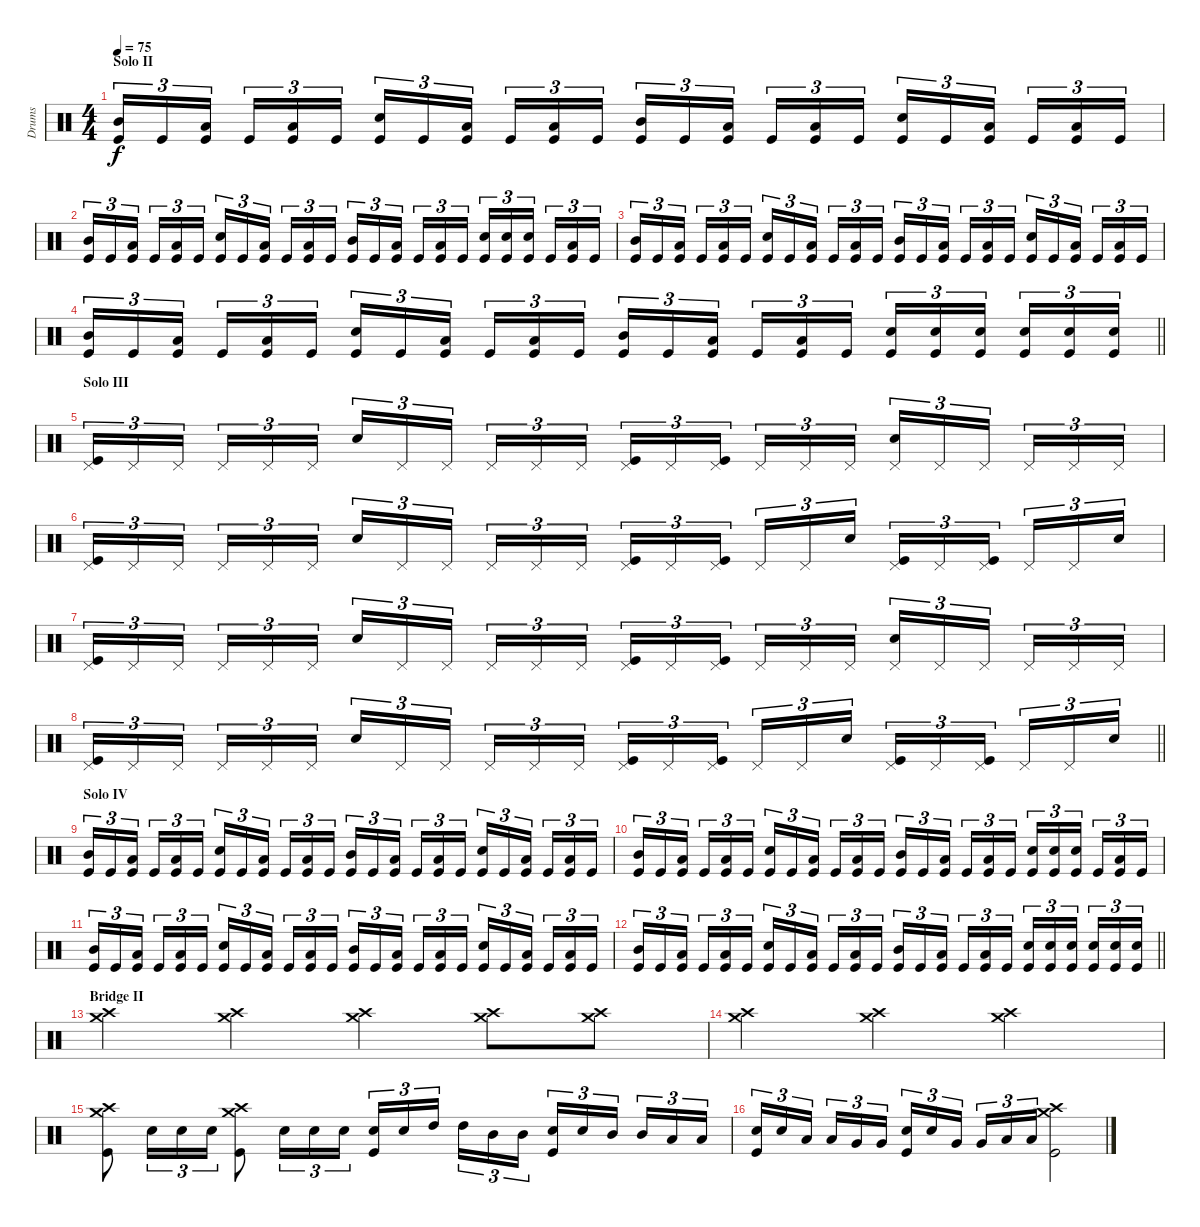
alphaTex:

\track ("Drums" "Drums") {instrument percussion}
\staff {score}
\articulation defaults
\ts (4 4)
\section ("" "Solo II")
\tempo 75
\clef neutral
\ks c
("Mid Tom (hit)" "Kick (hit)").16{tu (3 2) dy f} "Kick (hit)".16{tu (3 2)} ("Low Tom (hit)" "Kick (hit)").16{tu (3 2) beam splitsecondary} "Kick (hit)".16{tu (3 2)} ("Low Floor Tom (hit)" "Kick (hit)").16{tu (3 2)} "Kick (hit)".16{tu (3 2)} ("Snare (hit) 2" "Kick (hit)").16{tu (3 2)} "Kick (hit)".16{tu (3 2)} ("Low Tom (hit)" "Kick (hit)").16{tu (3 2) beam splitsecondary} "Kick (hit)".16{tu (3 2)} ("Low Floor Tom (hit)" "Kick (hit)").16{tu (3 2)} "Kick (hit)".16{tu (3 2)} ("Mid Tom (hit)" "Kick (hit)").16{tu (3 2)} "Kick (hit)".16{tu (3 2)} ("Low Tom (hit)" "Kick (hit)").16{tu (3 2) beam splitsecondary} "Kick (hit)".16{tu (3 2)} ("Low Floor Tom (hit)" "Kick (hit)").16{tu (3 2)} "Kick (hit)".16{tu (3 2)} ("Snare (hit) 2" "Kick (hit)").16{tu (3 2)} "Kick (hit)".16{tu (3 2)} ("Low Tom (hit)" "Kick (hit)").16{tu (3 2) beam splitsecondary} "Kick (hit)".16{tu (3 2)} ("Low Floor Tom (hit)" "Kick (hit)").16{tu (3 2)} "Kick (hit)".16{tu (3 2)} |
("Mid Tom (hit)" "Kick (hit)").16{tu (3 2)} "Kick (hit)".16{tu (3 2)} ("Low Tom (hit)" "Kick (hit)").16{tu (3 2) beam splitsecondary} "Kick (hit)".16{tu (3 2)} ("Low Floor Tom (hit)" "Kick (hit)").16{tu (3 2)} "Kick (hit)".16{tu (3 2)} ("Snare (hit) 2" "Kick (hit)").16{tu (3 2)} "Kick (hit)".16{tu (3 2)} ("Low Tom (hit)" "Kick (hit)").16{tu (3 2) beam splitsecondary} "Kick (hit)".16{tu (3 2)} ("Low Floor Tom (hit)" "Kick (hit)").16{tu (3 2)} "Kick (hit)".16{tu (3 2)} ("Mid Tom (hit)" "Kick (hit)").16{tu (3 2)} "Kick (hit)".16{tu (3 2)} ("Low Tom (hit)" "Kick (hit)").16{tu (3 2) beam splitsecondary} "Kick (hit)".16{tu (3 2)} ("Low Floor Tom (hit)" "Kick (hit)").16{tu (3 2)} "Kick (hit)".16{tu (3 2)} ("Snare (hit) 2" "Kick (hit)").16{tu (3 2)} ("Snare (hit) 2" "Kick (hit)").16{tu (3 2)} ("Snare (hit) 2" "Kick (hit)").16{tu (3 2) beam splitsecondary} "Kick (hit)".16{tu (3 2)} ("Low Floor Tom (hit)" "Kick (hit)").16{tu (3 2)} "Kick (hit)".16{tu (3 2)} |
("Mid Tom (hit)" "Kick (hit)").16{tu (3 2)} "Kick (hit)".16{tu (3 2)} ("Low Tom (hit)" "Kick (hit)").16{tu (3 2) beam splitsecondary} "Kick (hit)".16{tu (3 2)} ("Low Floor Tom (hit)" "Kick (hit)").16{tu (3 2)} "Kick (hit)".16{tu (3 2)} ("Snare (hit) 2" "Kick (hit)").16{tu (3 2)} "Kick (hit)".16{tu (3 2)} ("Low Tom (hit)" "Kick (hit)").16{tu (3 2) beam splitsecondary} "Kick (hit)".16{tu (3 2)} ("Low Floor Tom (hit)" "Kick (hit)").16{tu (3 2)} "Kick (hit)".16{tu (3 2)} ("Mid Tom (hit)" "Kick (hit)").16{tu (3 2)} "Kick (hit)".16{tu (3 2)} ("Low Tom (hit)" "Kick (hit)").16{tu (3 2) beam splitsecondary} "Kick (hit)".16{tu (3 2)} ("Low Floor Tom (hit)" "Kick (hit)").16{tu (3 2)} "Kick (hit)".16{tu (3 2)} ("Snare (hit) 2" "Kick (hit)").16{tu (3 2)} "Kick (hit)".16{tu (3 2)} ("Low Tom (hit)" "Kick (hit)").16{tu (3 2) beam splitsecondary} "Kick (hit)".16{tu (3 2)} ("Low Floor Tom (hit)" "Kick (hit)").16{tu (3 2)} "Kick (hit)".16{tu (3 2)} |
\barLineRight lightlight
("Mid Tom (hit)" "Kick (hit)").16{tu (3 2)} "Kick (hit)".16{tu (3 2)} ("Low Tom (hit)" "Kick (hit)").16{tu (3 2) beam splitsecondary} "Kick (hit)".16{tu (3 2)} ("Low Floor Tom (hit)" "Kick (hit)").16{tu (3 2)} "Kick (hit)".16{tu (3 2)} ("Snare (hit) 2" "Kick (hit)").16{tu (3 2)} "Kick (hit)".16{tu (3 2)} ("Low Tom (hit)" "Kick (hit)").16{tu (3 2) beam splitsecondary} "Kick (hit)".16{tu (3 2)} ("Low Floor Tom (hit)" "Kick (hit)").16{tu (3 2)} "Kick (hit)".16{tu (3 2)} ("Mid Tom (hit)" "Kick (hit)").16{tu (3 2)} "Kick (hit)".16{tu (3 2)} ("Low Tom (hit)" "Kick (hit)").16{tu (3 2) beam splitsecondary} "Kick (hit)".16{tu (3 2)} ("Low Floor Tom (hit)" "Kick (hit)").16{tu (3 2)} "Kick (hit)".16{tu (3 2)} ("Snare (hit) 2" "Kick (hit)").16{tu (3 2)} ("Snare (hit) 2" "Kick (hit)").16{tu (3 2)} ("Snare (hit) 2" "Kick (hit)").16{tu (3 2) beam splitsecondary} ("Snare (hit) 2" "Kick (hit)").16{tu (3 2)} ("Snare (hit) 2" "Kick (hit)").16{tu (3 2)} ("Snare (hit) 2" "Kick (hit)").16{tu (3 2)} |
\section ("" "Solo III")
("Pedal Hi-Hat (hit)" "Kick (hit)").16{tu (3 2)} "Pedal Hi-Hat (hit)".16{tu (3 2)} "Pedal Hi-Hat (hit)".16{tu (3 2) beam splitsecondary} "Pedal Hi-Hat (hit)".16{tu (3 2)} "Pedal Hi-Hat (hit)".16{tu (3 2)} "Pedal Hi-Hat (hit)".16{tu (3 2)} "Snare (hit) 2".16{tu (3 2)} "Pedal Hi-Hat (hit)".16{tu (3 2)} "Pedal Hi-Hat (hit)".16{tu (3 2) beam splitsecondary} "Pedal Hi-Hat (hit)".16{tu (3 2)} "Pedal Hi-Hat (hit)".16{tu (3 2)} "Pedal Hi-Hat (hit)".16{tu (3 2)} ("Pedal Hi-Hat (hit)" "Kick (hit)").16{tu (3 2)} "Pedal Hi-Hat (hit)".16{tu (3 2)} ("Pedal Hi-Hat (hit)" "Kick (hit)").16{tu (3 2) beam splitsecondary} "Pedal Hi-Hat (hit)".16{tu (3 2)} "Pedal Hi-Hat (hit)".16{tu (3 2)} "Pedal Hi-Hat (hit)".16{tu (3 2)} ("Pedal Hi-Hat (hit)" "Snare (hit) 2").16{tu (3 2)} "Pedal Hi-Hat (hit)".16{tu (3 2)} "Pedal Hi-Hat (hit)".16{tu (3 2) beam splitsecondary} "Pedal Hi-Hat (hit)".16{tu (3 2)} "Pedal Hi-Hat (hit)".16{tu (3 2)} "Pedal Hi-Hat (hit)".16{tu (3 2)} |
("Pedal Hi-Hat (hit)" "Kick (hit)").16{tu (3 2)} "Pedal Hi-Hat (hit)".16{tu (3 2)} "Pedal Hi-Hat (hit)".16{tu (3 2) beam splitsecondary} "Pedal Hi-Hat (hit)".16{tu (3 2)} "Pedal Hi-Hat (hit)".16{tu (3 2)} "Pedal Hi-Hat (hit)".16{tu (3 2)} "Snare (hit) 2".16{tu (3 2)} "Pedal Hi-Hat (hit)".16{tu (3 2)} "Pedal Hi-Hat (hit)".16{tu (3 2) beam splitsecondary} "Pedal Hi-Hat (hit)".16{tu (3 2)} "Pedal Hi-Hat (hit)".16{tu (3 2)} "Pedal Hi-Hat (hit)".16{tu (3 2)} ("Pedal Hi-Hat (hit)" "Kick (hit)").16{tu (3 2)} "Pedal Hi-Hat (hit)".16{tu (3 2)} ("Pedal Hi-Hat (hit)" "Kick (hit)").16{tu (3 2) beam splitsecondary} "Pedal Hi-Hat (hit)".16{tu (3 2)} "Pedal Hi-Hat (hit)".16{tu (3 2)} "Snare (hit) 2".16{tu (3 2)} ("Pedal Hi-Hat (hit)" "Kick (hit)").16{tu (3 2)} "Pedal Hi-Hat (hit)".16{tu (3 2)} ("Pedal Hi-Hat (hit)" "Kick (hit)").16{tu (3 2) beam splitsecondary} "Pedal Hi-Hat (hit)".16{tu (3 2)} "Pedal Hi-Hat (hit)".16{tu (3 2)} "Snare (hit) 2".16{tu (3 2)} |
("Pedal Hi-Hat (hit)" "Kick (hit)").16{tu (3 2)} "Pedal Hi-Hat (hit)".16{tu (3 2)} "Pedal Hi-Hat (hit)".16{tu (3 2) beam splitsecondary} "Pedal Hi-Hat (hit)".16{tu (3 2)} "Pedal Hi-Hat (hit)".16{tu (3 2)} "Pedal Hi-Hat (hit)".16{tu (3 2)} "Snare (hit) 2".16{tu (3 2)} "Pedal Hi-Hat (hit)".16{tu (3 2)} "Pedal Hi-Hat (hit)".16{tu (3 2) beam splitsecondary} "Pedal Hi-Hat (hit)".16{tu (3 2)} "Pedal Hi-Hat (hit)".16{tu (3 2)} "Pedal Hi-Hat (hit)".16{tu (3 2)} ("Pedal Hi-Hat (hit)" "Kick (hit)").16{tu (3 2)} "Pedal Hi-Hat (hit)".16{tu (3 2)} ("Pedal Hi-Hat (hit)" "Kick (hit)").16{tu (3 2) beam splitsecondary} "Pedal Hi-Hat (hit)".16{tu (3 2)} "Pedal Hi-Hat (hit)".16{tu (3 2)} "Pedal Hi-Hat (hit)".16{tu (3 2)} ("Pedal Hi-Hat (hit)" "Snare (hit) 2").16{tu (3 2)} "Pedal Hi-Hat (hit)".16{tu (3 2)} "Pedal Hi-Hat (hit)".16{tu (3 2) beam splitsecondary} "Pedal Hi-Hat (hit)".16{tu (3 2)} "Pedal Hi-Hat (hit)".16{tu (3 2)} "Pedal Hi-Hat (hit)".16{tu (3 2)} |
\barLineRight lightlight
("Pedal Hi-Hat (hit)" "Kick (hit)").16{tu (3 2)} "Pedal Hi-Hat (hit)".16{tu (3 2)} "Pedal Hi-Hat (hit)".16{tu (3 2) beam splitsecondary} "Pedal Hi-Hat (hit)".16{tu (3 2)} "Pedal Hi-Hat (hit)".16{tu (3 2)} "Pedal Hi-Hat (hit)".16{tu (3 2)} "Snare (hit) 2".16{tu (3 2)} "Pedal Hi-Hat (hit)".16{tu (3 2)} "Pedal Hi-Hat (hit)".16{tu (3 2) beam splitsecondary} "Pedal Hi-Hat (hit)".16{tu (3 2)} "Pedal Hi-Hat (hit)".16{tu (3 2)} "Pedal Hi-Hat (hit)".16{tu (3 2)} ("Pedal Hi-Hat (hit)" "Kick (hit)").16{tu (3 2)} "Pedal Hi-Hat (hit)".16{tu (3 2)} ("Pedal Hi-Hat (hit)" "Kick (hit)").16{tu (3 2) beam splitsecondary} "Pedal Hi-Hat (hit)".16{tu (3 2)} "Pedal Hi-Hat (hit)".16{tu (3 2)} "Snare (hit) 2".16{tu (3 2)} ("Pedal Hi-Hat (hit)" "Kick (hit)").16{tu (3 2)} "Pedal Hi-Hat (hit)".16{tu (3 2)} ("Pedal Hi-Hat (hit)" "Kick (hit)").16{tu (3 2) beam splitsecondary} "Pedal Hi-Hat (hit)".16{tu (3 2)} "Pedal Hi-Hat (hit)".16{tu (3 2)} "Snare (hit) 2".16{tu (3 2)} |
\section ("" "Solo IV")
("Mid Tom (hit)" "Kick (hit)").16{tu (3 2)} "Kick (hit)".16{tu (3 2)} ("Low Tom (hit)" "Kick (hit)").16{tu (3 2) beam splitsecondary} "Kick (hit)".16{tu (3 2)} ("Low Floor Tom (hit)" "Kick (hit)").16{tu (3 2)} "Kick (hit)".16{tu (3 2)} ("Snare (hit) 2" "Kick (hit)").16{tu (3 2)} "Kick (hit)".16{tu (3 2)} ("Low Tom (hit)" "Kick (hit)").16{tu (3 2) beam splitsecondary} "Kick (hit)".16{tu (3 2)} ("Low Floor Tom (hit)" "Kick (hit)").16{tu (3 2)} "Kick (hit)".16{tu (3 2)} ("Mid Tom (hit)" "Kick (hit)").16{tu (3 2)} "Kick (hit)".16{tu (3 2)} ("Low Tom (hit)" "Kick (hit)").16{tu (3 2) beam splitsecondary} "Kick (hit)".16{tu (3 2)} ("Low Floor Tom (hit)" "Kick (hit)").16{tu (3 2)} "Kick (hit)".16{tu (3 2)} ("Snare (hit) 2" "Kick (hit)").16{tu (3 2)} "Kick (hit)".16{tu (3 2)} ("Low Tom (hit)" "Kick (hit)").16{tu (3 2) beam splitsecondary} "Kick (hit)".16{tu (3 2)} ("Low Floor Tom (hit)" "Kick (hit)").16{tu (3 2)} "Kick (hit)".16{tu (3 2)} |
("Mid Tom (hit)" "Kick (hit)").16{tu (3 2)} "Kick (hit)".16{tu (3 2)} ("Low Tom (hit)" "Kick (hit)").16{tu (3 2) beam splitsecondary} "Kick (hit)".16{tu (3 2)} ("Low Floor Tom (hit)" "Kick (hit)").16{tu (3 2)} "Kick (hit)".16{tu (3 2)} ("Snare (hit) 2" "Kick (hit)").16{tu (3 2)} "Kick (hit)".16{tu (3 2)} ("Low Tom (hit)" "Kick (hit)").16{tu (3 2) beam splitsecondary} "Kick (hit)".16{tu (3 2)} ("Low Floor Tom (hit)" "Kick (hit)").16{tu (3 2)} "Kick (hit)".16{tu (3 2)} ("Mid Tom (hit)" "Kick (hit)").16{tu (3 2)} "Kick (hit)".16{tu (3 2)} ("Low Tom (hit)" "Kick (hit)").16{tu (3 2) beam splitsecondary} "Kick (hit)".16{tu (3 2)} ("Low Floor Tom (hit)" "Kick (hit)").16{tu (3 2)} "Kick (hit)".16{tu (3 2)} ("Snare (hit) 2" "Kick (hit)").16{tu (3 2)} ("Snare (hit) 2" "Kick (hit)").16{tu (3 2)} ("Snare (hit) 2" "Kick (hit)").16{tu (3 2) beam splitsecondary} "Kick (hit)".16{tu (3 2)} ("Low Floor Tom (hit)" "Kick (hit)").16{tu (3 2)} "Kick (hit)".16{tu (3 2)} |
("Mid Tom (hit)" "Kick (hit)").16{tu (3 2)} "Kick (hit)".16{tu (3 2)} ("Low Tom (hit)" "Kick (hit)").16{tu (3 2) beam splitsecondary} "Kick (hit)".16{tu (3 2)} ("Low Floor Tom (hit)" "Kick (hit)").16{tu (3 2)} "Kick (hit)".16{tu (3 2)} ("Snare (hit) 2" "Kick (hit)").16{tu (3 2)} "Kick (hit)".16{tu (3 2)} ("Low Tom (hit)" "Kick (hit)").16{tu (3 2) beam splitsecondary} "Kick (hit)".16{tu (3 2)} ("Low Floor Tom (hit)" "Kick (hit)").16{tu (3 2)} "Kick (hit)".16{tu (3 2)} ("Mid Tom (hit)" "Kick (hit)").16{tu (3 2)} "Kick (hit)".16{tu (3 2)} ("Low Tom (hit)" "Kick (hit)").16{tu (3 2) beam splitsecondary} "Kick (hit)".16{tu (3 2)} ("Low Floor Tom (hit)" "Kick (hit)").16{tu (3 2)} "Kick (hit)".16{tu (3 2)} ("Snare (hit) 2" "Kick (hit)").16{tu (3 2)} "Kick (hit)".16{tu (3 2)} ("Low Tom (hit)" "Kick (hit)").16{tu (3 2) beam splitsecondary} "Kick (hit)".16{tu (3 2)} ("Low Floor Tom (hit)" "Kick (hit)").16{tu (3 2)} "Kick (hit)".16{tu (3 2)} |
\barLineRight lightlight
("Mid Tom (hit)" "Kick (hit)").16{tu (3 2)} "Kick (hit)".16{tu (3 2)} ("Low Tom (hit)" "Kick (hit)").16{tu (3 2) beam splitsecondary} "Kick (hit)".16{tu (3 2)} ("Low Floor Tom (hit)" "Kick (hit)").16{tu (3 2)} "Kick (hit)".16{tu (3 2)} ("Snare (hit) 2" "Kick (hit)").16{tu (3 2)} "Kick (hit)".16{tu (3 2)} ("Low Tom (hit)" "Kick (hit)").16{tu (3 2) beam splitsecondary} "Kick (hit)".16{tu (3 2)} ("Low Floor Tom (hit)" "Kick (hit)").16{tu (3 2)} "Kick (hit)".16{tu (3 2)} ("Mid Tom (hit)" "Kick (hit)").16{tu (3 2)} "Kick (hit)".16{tu (3 2)} ("Low Tom (hit)" "Kick (hit)").16{tu (3 2) beam splitsecondary} "Kick (hit)".16{tu (3 2)} ("Low Floor Tom (hit)" "Kick (hit)").16{tu (3 2)} "Kick (hit)".16{tu (3 2)} ("Snare (hit) 2" "Kick (hit)").16{tu (3 2)} ("Snare (hit) 2" "Kick (hit)").16{tu (3 2)} ("Snare (hit) 2" "Kick (hit)").16{tu (3 2) beam splitsecondary} ("Snare (hit) 2" "Kick (hit)").16{tu (3 2)} ("Snare (hit) 2" "Kick (hit)").16{tu (3 2)} ("Snare (hit) 2" "Kick (hit)").16{tu (3 2)} |
\section ("" "Bridge II")
("Crash medium (hit)" "Crash high (hit)").4 ("Crash medium (hit)" "Crash high (hit)").4 ("Crash medium (hit)" "Crash high (hit)").4 ("Crash medium (hit)" "Crash high (hit)").8 ("Crash medium (hit)" "Crash high (hit)").8 |
("Crash medium (hit)" "Crash high (hit)").4 ("Crash medium (hit)" "Crash high (hit)").4 ("Crash medium (hit)" "Crash high (hit)").2 |
("Crash medium (hit)" "Crash high (hit)" "Kick (hit)").8 "Snare (hit) 2".16{tu (3 2)} "Snare (hit) 2".16{tu (3 2)} "Snare (hit) 2".16{tu (3 2)} ("Crash medium (hit)" "Crash high (hit)" "Kick (hit)").8 "Snare (hit) 2".16{tu (3 2)} "Snare (hit) 2".16{tu (3 2)} "Snare (hit) 2".16{tu (3 2)} ("Snare (hit) 2" "Kick (hit)").16{tu (3 2)} "Snare (hit) 2".16{tu (3 2)} "High Tom (hit)".16{tu (3 2) beam splitsecondary} "High Tom (hit)".16{tu (3 2)} "Mid Tom (hit)".16{tu (3 2)} "Mid Tom (hit)".16{tu (3 2)} ("Snare (hit) 2" "Kick (hit)").16{tu (3 2)} "Snare (hit) 2".16{tu (3 2)} "Mid Tom (hit)".16{tu (3 2) beam splitsecondary} "Mid Tom (hit)".16{tu (3 2)} "Low Tom (hit)".16{tu (3 2)} "Low Tom (hit)".16{tu (3 2)} |
("Snare (hit) 2" "Kick (hit)").16{tu (3 2)} "Snare (hit) 2".16{tu (3 2)} "Low Tom (hit)".16{tu (3 2) beam splitsecondary} "Low Tom (hit)".16{tu (3 2)} "Very Low Tom (hit)".16{tu (3 2)} "Very Low Tom (hit)".16{tu (3 2)} ("Snare (hit) 2" "Kick (hit)").16{tu (3 2)} "Snare (hit) 2".16{tu (3 2)} "Very Low Tom (hit)".16{tu (3 2) beam splitsecondary} "Very Low Tom (hit)".16{tu (3 2)} "Low Floor Tom (hit)".16{tu (3 2)} "Low Floor Tom (hit)".16{tu (3 2)} ("Crash medium (hit)" "Crash high (hit)" "Kick (hit)").2
